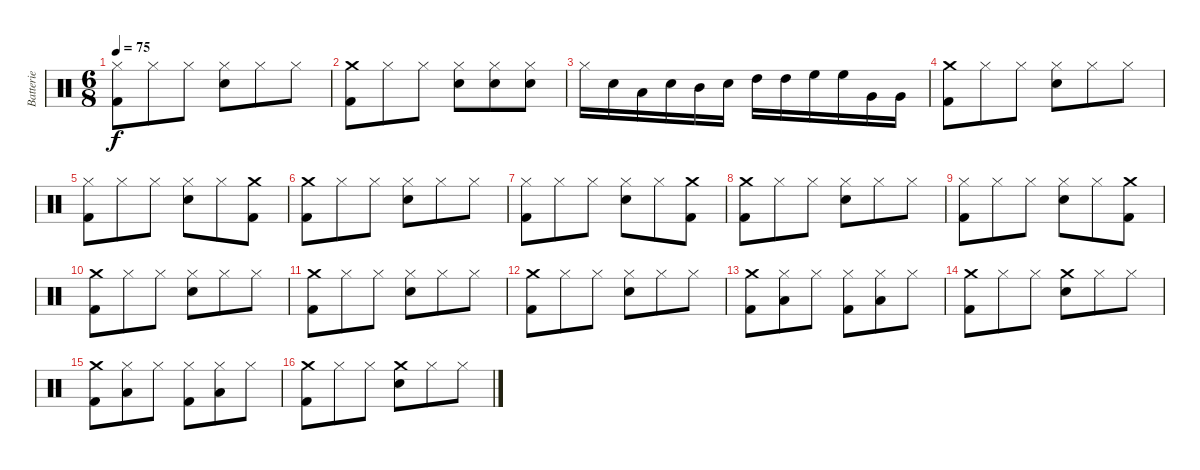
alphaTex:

\track ("Batterie" "Batterie") {instrument percussion}
\staff {score}
\articulation defaults
\ts (6 8)
\tempo 75
\clef neutral
\ks c
("Kick (hit) 2" "Hi-Hat (closed)").8{dy f} "Hi-Hat (closed)".8 "Hi-Hat (closed)".8 ("Snare (hit) 2" "Hi-Hat (closed)").8 "Hi-Hat (closed)".8 "Hi-Hat (closed)".8 |
("Kick (hit) 2" "Crash medium (hit)").8 "Hi-Hat (closed)".8 "Hi-Hat (closed)".8 ("Snare (hit) 2" "Hi-Hat (closed)").8 ("Snare (hit) 2" "Hi-Hat (closed)").8 ("Snare (hit) 2" "Hi-Hat (closed)").8 |
"Hi-Hat (closed)".16 "Snare (hit) 2".16 "Low Tom (hit)".16 "Snare (hit) 2".16 "Mid Tom (hit)".16 "Snare (hit) 2".16 "High Tom (hit)".16 "High Tom (hit)".16 "High Floor Tom (hit)".16 "High Floor Tom (hit)".16 "Very Low Tom (hit)".16 "Very Low Tom (hit)".16 |
("Kick (hit) 2" "Crash medium (hit)").8 "Hi-Hat (closed)".8 "Hi-Hat (closed)".8 ("Snare (hit) 2" "Hi-Hat (closed)").8 "Hi-Hat (closed)".8 "Hi-Hat (closed)".8 |
("Kick (hit) 2" "Hi-Hat (closed)").8 "Hi-Hat (closed)".8 "Hi-Hat (closed)".8 ("Snare (hit) 2" "Hi-Hat (closed)").8 "Hi-Hat (closed)".8 ("Kick (hit) 2" "Crash medium (hit)").8 |
("Kick (hit) 2" "Crash medium (hit)").8 "Hi-Hat (closed)".8 "Hi-Hat (closed)".8 ("Snare (hit) 2" "Hi-Hat (closed)").8 "Hi-Hat (closed)".8 "Hi-Hat (closed)".8 |
("Kick (hit) 2" "Hi-Hat (closed)").8 "Hi-Hat (closed)".8 "Hi-Hat (closed)".8 ("Snare (hit) 2" "Hi-Hat (closed)").8 "Hi-Hat (closed)".8 ("Kick (hit) 2" "Crash medium (hit)").8 |
("Kick (hit) 2" "Crash medium (hit)").8 "Hi-Hat (closed)".8 "Hi-Hat (closed)".8 ("Snare (hit) 2" "Hi-Hat (closed)").8 "Hi-Hat (closed)".8 "Hi-Hat (closed)".8 |
("Kick (hit) 2" "Hi-Hat (closed)").8 "Hi-Hat (closed)".8 "Hi-Hat (closed)".8 ("Snare (hit) 2" "Hi-Hat (closed)").8 "Hi-Hat (closed)".8 ("Kick (hit) 2" "Crash medium (hit)").8 |
("Kick (hit) 2" "Crash medium (hit)").8 "Hi-Hat (closed)".8 "Hi-Hat (closed)".8 ("Snare (hit) 2" "Hi-Hat (closed)").8 "Hi-Hat (closed)".8 "Hi-Hat (closed)".8 |
("Kick (hit) 2" "Crash medium (hit)").8 "Hi-Hat (closed)".8 "Hi-Hat (closed)".8 ("Snare (hit) 2" "Hi-Hat (closed)").8 "Hi-Hat (closed)".8 "Hi-Hat (closed)".8 |
("Kick (hit) 2" "Crash medium (hit)").8 "Hi-Hat (closed)".8 "Hi-Hat (closed)".8 ("Snare (hit) 2" "Hi-Hat (closed)").8 "Hi-Hat (closed)".8 "Hi-Hat (closed)".8 |
("Kick (hit) 2" "Crash medium (hit)").8 ("Low Tom (hit)" "Hi-Hat (closed)").8 "Hi-Hat (closed)".8 ("Kick (hit) 2" "Hi-Hat (closed)").8 ("Low Tom (hit)" "Hi-Hat (closed)").8 "Hi-Hat (closed)".8 |
("Kick (hit) 2" "Crash medium (hit)").8 "Hi-Hat (closed)".8 "Hi-Hat (closed)".8 ("Snare (hit) 2" "Crash medium (hit)").8 "Hi-Hat (closed)".8 "Hi-Hat (closed)".8 |
("Kick (hit) 2" "Crash medium (hit)").8 ("Low Tom (hit)" "Hi-Hat (closed)").8 "Hi-Hat (closed)".8 ("Kick (hit) 2" "Hi-Hat (closed)").8 ("Low Tom (hit)" "Hi-Hat (closed)").8 "Hi-Hat (closed)".8 |
("Kick (hit) 2" "Crash medium (hit)").8 "Hi-Hat (closed)".8 "Hi-Hat (closed)".8 ("Crash medium (hit)" "Snare (hit) 2").8 "Hi-Hat (closed)".8 "Hi-Hat (closed)".8
